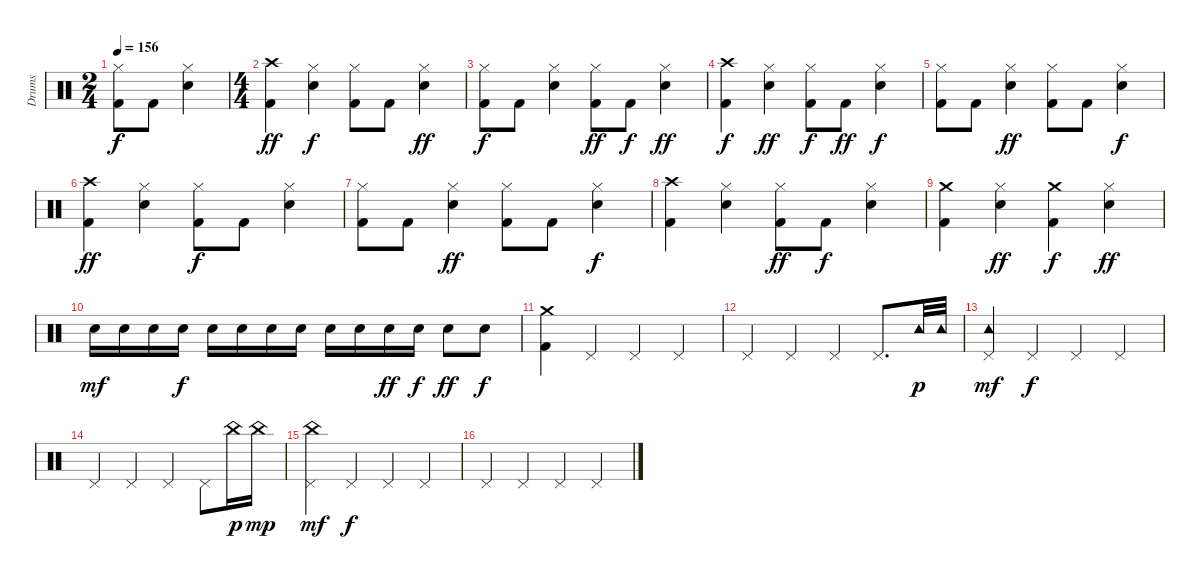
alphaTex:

\track ("Drums" "Drums") {instrument percussion}
\staff {score}
\articulation defaults
\ts (2 4)
\tempo 156
\clef neutral
\ks c
("Hi-Hat (closed)" "Kick (hit) 2").8{dy f} "Kick (hit) 2".8 ("Hi-Hat (closed)" "Snare (hit) 2").4 |
\ts (4 4)
("Crash high (hit)" "Kick (hit) 2").4{dy ff} ("Snare (hit) 2" "Hi-Hat (closed)").4{dy f} ("Kick (hit) 2" "Hi-Hat (closed)").8 "Kick (hit) 2".8 ("Hi-Hat (closed)" "Snare (hit) 2").4{dy ff} |
("Kick (hit) 2" "Hi-Hat (closed)").8{dy f} "Kick (hit) 2".8 ("Snare (hit) 2" "Hi-Hat (closed)").4 ("Hi-Hat (closed)" "Kick (hit) 2").8{dy ff} "Kick (hit) 2".8{dy f} ("Snare (hit) 2" "Hi-Hat (closed)").4{dy ff} |
("Kick (hit) 2" "Crash high (hit)").4{dy f} ("Hi-Hat (closed)" "Snare (hit) 2").4{dy ff} ("Hi-Hat (closed)" "Kick (hit) 2").8{dy f} "Kick (hit) 2".8{dy ff} ("Snare (hit) 2" "Hi-Hat (closed)").4{dy f} |
("Kick (hit) 2" "Hi-Hat (closed)").8 "Kick (hit) 2".8 ("Hi-Hat (closed)" "Snare (hit) 2").4{dy ff} ("Kick (hit) 2" "Hi-Hat (closed)").8 "Kick (hit) 2".8 ("Snare (hit) 2" "Hi-Hat (closed)").4{dy f} |
("Crash high (hit)" "Kick (hit) 2").4{dy ff} ("Snare (hit) 2" "Hi-Hat (closed)").4 ("Kick (hit) 2" "Hi-Hat (closed)").8{dy f} "Kick (hit) 2".8 ("Hi-Hat (closed)" "Snare (hit) 2").4 |
("Kick (hit) 2" "Hi-Hat (closed)").8 "Kick (hit) 2".8 ("Hi-Hat (closed)" "Snare (hit) 2").4{dy ff} ("Hi-Hat (closed)" "Kick (hit) 2").8 "Kick (hit) 2".8 ("Hi-Hat (closed)" "Snare (hit) 2").4{dy f} |
("Kick (hit) 2" "Crash high (hit)").4 ("Hi-Hat (closed)" "Snare (hit) 2").4 ("Hi-Hat (closed)" "Kick (hit) 2").8{dy ff} "Kick (hit) 2".8{dy f} ("Snare (hit) 2" "Hi-Hat (closed)").4 |
("Kick (hit) 2" "Crash medium (hit)").4 ("Snare (hit) 2" "Hi-Hat (closed)").4{dy ff} ("Crash medium (hit)" "Kick (hit) 2").4{dy f} ("Snare (hit) 2" "Hi-Hat (closed)").4{dy ff} |
"Snare (hit) 2".16{dy mf} "Snare (hit) 2".16 "Snare (hit) 2".16 "Snare (hit) 2".16{dy f} "Snare (hit) 2".16 "Snare (hit) 2".16 "Snare (hit) 2".16 "Snare (hit) 2".16 "Snare (hit) 2".16 "Snare (hit) 2".16 "Snare (hit) 2".16{dy ff} "Snare (hit) 2".16{dy f} "Snare (hit) 2".8{dy ff} "Snare (hit) 2".8{dy f} |
("Crash medium (hit)" "Kick (hit) 2").4 "Pedal Hi-Hat (hit)".4 "Pedal Hi-Hat (hit)".4 "Pedal Hi-Hat (hit)".4 |
"Pedal Hi-Hat (hit)".4 "Pedal Hi-Hat (hit)".4 "Pedal Hi-Hat (hit)".4 "Pedal Hi-Hat (hit)".8{d} "Tambourine (hit)".32{dy p} "Tambourine (hit)".32 |
("Tambourine (hit)" "Pedal Hi-Hat (hit)").4{dy mf} "Pedal Hi-Hat (hit)".4{dy f} "Pedal Hi-Hat (hit)".4 "Pedal Hi-Hat (hit)".4 |
"Pedal Hi-Hat (hit)".4 "Pedal Hi-Hat (hit)".4 "Pedal Hi-Hat (hit)".4 "Pedal Hi-Hat (hit)".8 "China (hit)".16{dy p} "China (hit)".16{dy mp} |
("Pedal Hi-Hat (hit)" "China (hit)").4{dy mf} "Pedal Hi-Hat (hit)".4{dy f} "Pedal Hi-Hat (hit)".4 "Pedal Hi-Hat (hit)".4 |
"Pedal Hi-Hat (hit)".4 "Pedal Hi-Hat (hit)".4 "Pedal Hi-Hat (hit)".4 "Pedal Hi-Hat (hit)".4
